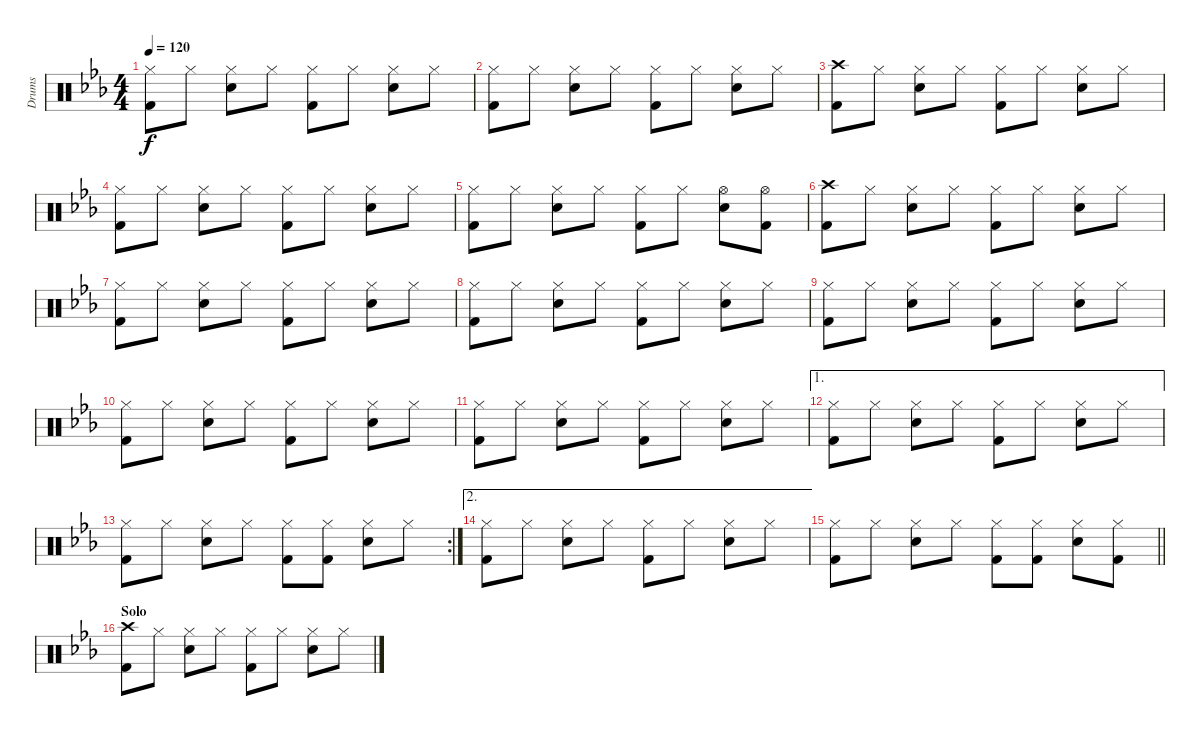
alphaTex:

\track ("Drums" "Drums") {instrument percussion}
\staff {score}
\articulation defaults
\ts (4 4)
\tempo 120
\clef neutral
\ks eb
("Hi-Hat (closed)" "Kick (hit) 2").8{dy f} "Hi-Hat (closed)".8 ("Hi-Hat (closed)" "Snare (hit) 2").8 "Hi-Hat (closed)".8 ("Hi-Hat (closed)" "Kick (hit) 2").8 "Hi-Hat (closed)".8 ("Hi-Hat (closed)" "Snare (hit) 2").8 "Hi-Hat (closed)".8 |
("Hi-Hat (closed)" "Kick (hit) 2").8 "Hi-Hat (closed)".8 ("Hi-Hat (closed)" "Snare (hit) 2").8 "Hi-Hat (closed)".8 ("Hi-Hat (closed)" "Kick (hit) 2").8 "Hi-Hat (closed)".8 ("Hi-Hat (closed)" "Snare (hit) 2").8 "Hi-Hat (closed)".8 |
("Crash high (hit)" "Kick (hit) 2").8 "Hi-Hat (closed)".8 ("Hi-Hat (closed)" "Snare (hit) 2").8 "Hi-Hat (closed)".8 ("Hi-Hat (closed)" "Kick (hit) 2").8 "Hi-Hat (closed)".8 ("Hi-Hat (closed)" "Snare (hit) 2").8 "Hi-Hat (closed)".8 |
("Hi-Hat (closed)" "Kick (hit) 2").8 "Hi-Hat (closed)".8 ("Hi-Hat (closed)" "Snare (hit) 2").8 "Hi-Hat (closed)".8 ("Hi-Hat (closed)" "Kick (hit) 2").8 "Hi-Hat (closed)".8 ("Hi-Hat (closed)" "Snare (hit) 2").8 "Hi-Hat (closed)".8 |
("Hi-Hat (closed)" "Kick (hit) 2").8 "Hi-Hat (closed)".8 ("Hi-Hat (closed)" "Snare (hit) 2").8 "Hi-Hat (closed)".8 ("Hi-Hat (closed)" "Kick (hit) 2").8 "Hi-Hat (closed)".8 ("Hi-Hat (open)" "Snare (hit) 2").8 ("Hi-Hat (open)" "Kick (hit) 2").8 |
("Crash high (hit)" "Kick (hit) 2").8 "Hi-Hat (closed)".8 ("Hi-Hat (closed)" "Snare (hit) 2").8 "Hi-Hat (closed)".8 ("Hi-Hat (closed)" "Kick (hit) 2").8 "Hi-Hat (closed)".8 ("Hi-Hat (closed)" "Snare (hit) 2").8 "Hi-Hat (closed)".8 |
("Hi-Hat (closed)" "Kick (hit) 2").8 "Hi-Hat (closed)".8 ("Hi-Hat (closed)" "Snare (hit) 2").8 "Hi-Hat (closed)".8 ("Hi-Hat (closed)" "Kick (hit) 2").8 "Hi-Hat (closed)".8 ("Hi-Hat (closed)" "Snare (hit) 2").8 "Hi-Hat (closed)".8 |
("Hi-Hat (closed)" "Kick (hit) 2").8 "Hi-Hat (closed)".8 ("Hi-Hat (closed)" "Snare (hit) 2").8 "Hi-Hat (closed)".8 ("Hi-Hat (closed)" "Kick (hit) 2").8 "Hi-Hat (closed)".8 ("Hi-Hat (closed)" "Snare (hit) 2").8 "Hi-Hat (closed)".8 |
("Hi-Hat (closed)" "Kick (hit) 2").8 "Hi-Hat (closed)".8 ("Hi-Hat (closed)" "Snare (hit) 2").8 "Hi-Hat (closed)".8 ("Hi-Hat (closed)" "Kick (hit) 2").8 "Hi-Hat (closed)".8 ("Hi-Hat (closed)" "Snare (hit) 2").8 "Hi-Hat (closed)".8 |
("Hi-Hat (closed)" "Kick (hit) 2").8 "Hi-Hat (closed)".8 ("Hi-Hat (closed)" "Snare (hit) 2").8 "Hi-Hat (closed)".8 ("Hi-Hat (closed)" "Kick (hit) 2").8 "Hi-Hat (closed)".8 ("Hi-Hat (closed)" "Snare (hit) 2").8 "Hi-Hat (closed)".8 |
("Hi-Hat (closed)" "Kick (hit) 2").8 "Hi-Hat (closed)".8 ("Hi-Hat (closed)" "Snare (hit) 2").8 "Hi-Hat (closed)".8 ("Hi-Hat (closed)" "Kick (hit) 2").8 "Hi-Hat (closed)".8 ("Hi-Hat (closed)" "Snare (hit) 2").8 "Hi-Hat (closed)".8 |
\ae 1
("Hi-Hat (closed)" "Kick (hit) 2").8 "Hi-Hat (closed)".8 ("Hi-Hat (closed)" "Snare (hit) 2").8 "Hi-Hat (closed)".8 ("Hi-Hat (closed)" "Kick (hit) 2").8 "Hi-Hat (closed)".8 ("Hi-Hat (closed)" "Snare (hit) 2").8 "Hi-Hat (closed)".8 |
\rc 2
("Hi-Hat (closed)" "Kick (hit) 2").8 "Hi-Hat (closed)".8 ("Hi-Hat (closed)" "Snare (hit) 2").8 "Hi-Hat (closed)".8 ("Hi-Hat (closed)" "Kick (hit) 2").8 ("Hi-Hat (closed)" "Kick (hit) 2").8 ("Hi-Hat (closed)" "Snare (hit) 2").8 "Hi-Hat (closed)".8 |
\ae 2
("Hi-Hat (closed)" "Kick (hit) 2").8 "Hi-Hat (closed)".8 ("Hi-Hat (closed)" "Snare (hit) 2").8 "Hi-Hat (closed)".8 ("Hi-Hat (closed)" "Kick (hit) 2").8 "Hi-Hat (closed)".8 ("Hi-Hat (closed)" "Snare (hit) 2").8 "Hi-Hat (closed)".8 |
\barLineRight lightlight
("Hi-Hat (closed)" "Kick (hit) 2").8 "Hi-Hat (closed)".8 ("Hi-Hat (closed)" "Snare (hit) 2").8 "Hi-Hat (closed)".8 ("Hi-Hat (closed)" "Kick (hit) 2").8 ("Hi-Hat (closed)" "Kick (hit) 2").8 ("Hi-Hat (closed)" "Snare (hit) 2").8 ("Hi-Hat (closed)" "Kick (hit) 2").8 |
\section ("" "Solo")
("Crash high (hit)" "Kick (hit) 2").8 "Hi-Hat (closed)".8 ("Hi-Hat (closed)" "Snare (hit) 2").8 "Hi-Hat (closed)".8 ("Hi-Hat (closed)" "Kick (hit) 2").8 "Hi-Hat (closed)".8 ("Hi-Hat (closed)" "Snare (hit) 2").8 "Hi-Hat (closed)".8
